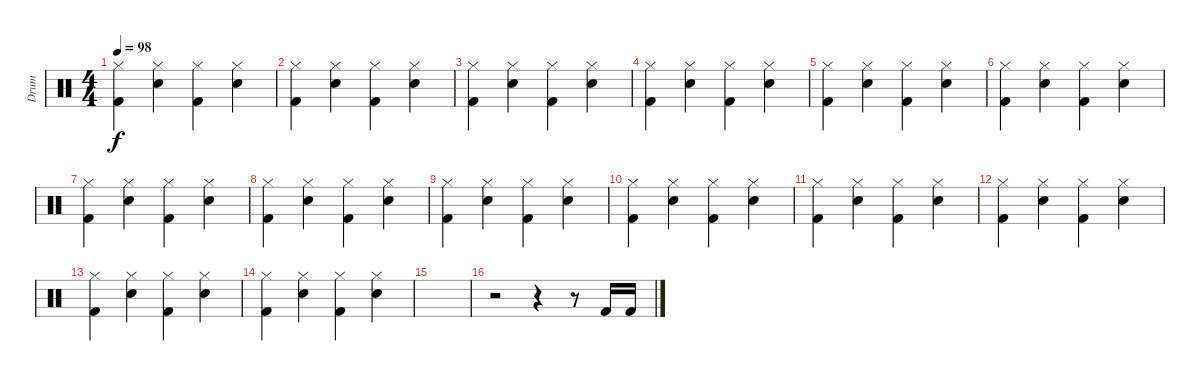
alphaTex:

\track ("Drum" "Drum") {instrument percussion}
\staff {score}
\articulation defaults
\ts (4 4)
\tempo 98
\clef neutral
\ks c
("Hi-Hat (closed)" "Kick (hit) 2").4{dy f} ("Hi-Hat (closed)" "Snare (hit) 2").4 ("Hi-Hat (closed)" "Kick (hit) 2").4 ("Hi-Hat (closed)" "Snare (hit) 2").4 |
("Hi-Hat (closed)" "Kick (hit) 2").4 ("Hi-Hat (closed)" "Snare (hit) 2").4 ("Hi-Hat (closed)" "Kick (hit) 2").4 ("Hi-Hat (closed)" "Snare (hit) 2").4 |
("Hi-Hat (closed)" "Kick (hit) 2").4 ("Hi-Hat (closed)" "Snare (hit) 2").4 ("Hi-Hat (closed)" "Kick (hit) 2").4 ("Hi-Hat (closed)" "Snare (hit) 2").4 |
("Hi-Hat (closed)" "Kick (hit) 2").4 ("Hi-Hat (closed)" "Snare (hit) 2").4 ("Hi-Hat (closed)" "Kick (hit) 2").4 ("Hi-Hat (closed)" "Snare (hit) 2").4 |
("Hi-Hat (closed)" "Kick (hit) 2").4 ("Hi-Hat (closed)" "Snare (hit) 2").4 ("Hi-Hat (closed)" "Kick (hit) 2").4 ("Hi-Hat (closed)" "Snare (hit) 2").4 |
("Hi-Hat (closed)" "Kick (hit) 2").4 ("Hi-Hat (closed)" "Snare (hit) 2").4 ("Hi-Hat (closed)" "Kick (hit) 2").4 ("Hi-Hat (closed)" "Snare (hit) 2").4 |
("Hi-Hat (closed)" "Kick (hit) 2").4 ("Hi-Hat (closed)" "Snare (hit) 2").4 ("Hi-Hat (closed)" "Kick (hit) 2").4 ("Hi-Hat (closed)" "Snare (hit) 2").4 |
("Hi-Hat (closed)" "Kick (hit) 2").4 ("Hi-Hat (closed)" "Snare (hit) 2").4 ("Hi-Hat (closed)" "Kick (hit) 2").4 ("Hi-Hat (closed)" "Snare (hit) 2").4 |
("Hi-Hat (closed)" "Kick (hit) 2").4 ("Hi-Hat (closed)" "Snare (hit) 2").4 ("Hi-Hat (closed)" "Kick (hit) 2").4 ("Hi-Hat (closed)" "Snare (hit) 2").4 |
("Hi-Hat (closed)" "Kick (hit) 2").4 ("Hi-Hat (closed)" "Snare (hit) 2").4 ("Hi-Hat (closed)" "Kick (hit) 2").4 ("Hi-Hat (closed)" "Snare (hit) 2").4 |
("Hi-Hat (closed)" "Kick (hit) 2").4 ("Hi-Hat (closed)" "Snare (hit) 2").4 ("Hi-Hat (closed)" "Kick (hit) 2").4 ("Hi-Hat (closed)" "Snare (hit) 2").4 |
("Hi-Hat (closed)" "Kick (hit) 2").4 ("Hi-Hat (closed)" "Snare (hit) 2").4 ("Hi-Hat (closed)" "Kick (hit) 2").4 ("Hi-Hat (closed)" "Snare (hit) 2").4 |
("Hi-Hat (closed)" "Kick (hit) 2").4 ("Hi-Hat (closed)" "Snare (hit) 2").4 ("Hi-Hat (closed)" "Kick (hit) 2").4 ("Hi-Hat (closed)" "Snare (hit) 2").4 |
("Hi-Hat (closed)" "Kick (hit) 2").4 ("Hi-Hat (closed)" "Snare (hit) 2").4 ("Hi-Hat (closed)" "Kick (hit) 2").4 ("Hi-Hat (closed)" "Snare (hit) 2").4 |
|
r.2 r.4 r.8 "Kick (hit) 2".16 "Kick (hit) 2".16
